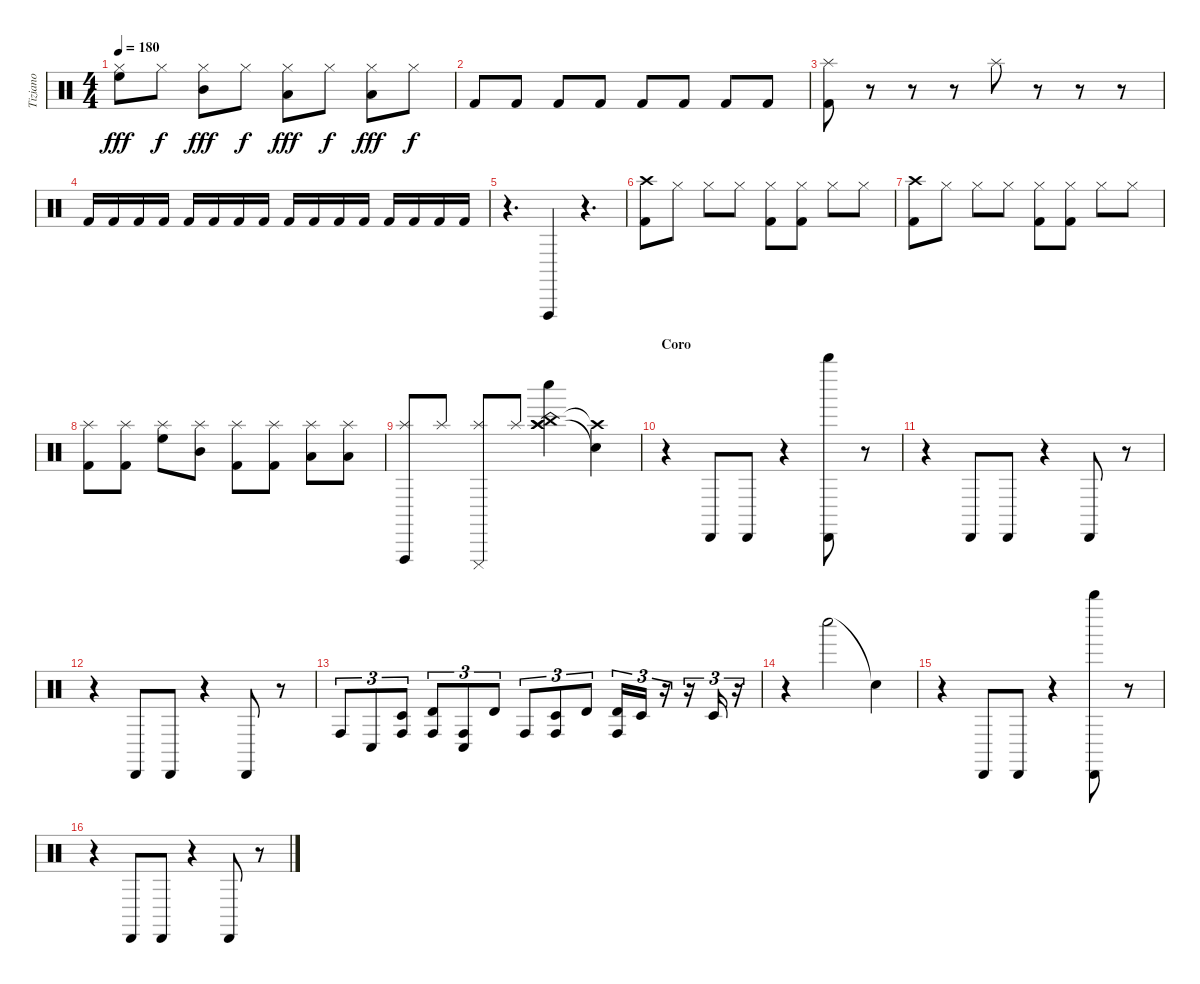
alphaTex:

\track ("Tiziano" "Tiziano") {instrument percussion}
\staff {score}
\articulation defaults
\ts (4 4)
\tempo 180
\clef neutral
\ks c
("Hi-Hat (closed)" "High Floor Tom (hit)").8{dy fff} "Hi-Hat (closed)".8{dy f} ("Hi-Hat (closed)" "Mid Tom (hit)").8{dy fff} "Hi-Hat (closed)".8{dy f} ("Hi-Hat (closed)" "Low Tom (hit)").8{dy fff} "Hi-Hat (closed)".8{dy f} ("Hi-Hat (closed)" "Low Floor Tom (hit)").8{dy fff} "Hi-Hat (closed)".8{dy f} |
"Kick (hit) 2".8 "Kick (hit) 2".8 "Kick (hit) 2".8 "Kick (hit) 2".8 "Kick (hit) 2".8 "Kick (hit) 2".8 "Kick (hit) 2".8 "Kick (hit) 2".8 |
("Splash (hit)" "Kick (hit) 2").8 r.8 r.8 r.8 "Splash (hit)".8 r.8 r.8 r.8 |
"Kick (hit) 2".16 "Kick (hit) 2".16 "Kick (hit) 2".16 "Kick (hit) 2".16 "Kick (hit) 2".16 "Kick (hit) 2".16 "Kick (hit) 2".16 "Kick (hit) 2".16 "Kick (hit) 2".16 "Kick (hit) 2".16 "Kick (hit) 2".16 "Kick (hit) 2".16 "Kick (hit) 2".16 "Kick (hit) 2".16 "Kick (hit) 2".16 "Kick (hit) 2".16 |
r.4{d} "Vibraslap (hit)".4 r.4{d} |
("Crash high (hit)" "Kick (hit) 2").8 "Hi-Hat (closed)".8 "Hi-Hat (closed)".8 "Hi-Hat (closed)".8 ("Hi-Hat (closed)" "Kick (hit) 2").8 ("Hi-Hat (closed)" "Kick (hit) 2").8 "Hi-Hat (closed)".8 "Hi-Hat (closed)".8 |
("Crash high (hit)" "Kick (hit) 2").8 "Hi-Hat (closed)".8 "Hi-Hat (closed)".8 "Hi-Hat (closed)".8 ("Hi-Hat (closed)" "Kick (hit) 2").8 ("Hi-Hat (closed)" "Kick (hit) 2").8 "Hi-Hat (closed)".8 "Hi-Hat (closed)".8 |
("Splash (hit)" "Kick (hit) 2").8 ("Splash (hit)" "Kick (hit) 2").8 ("Splash (hit)" "High Floor Tom (hit)").8 ("Splash (hit)" "Mid Tom (hit)").8 ("Splash (hit)" "Kick (hit) 2").8 ("Splash (hit)" "Kick (hit) 2").8 ("Splash (hit)" "Low Tom (hit)").8 ("Splash (hit)" "Low Floor Tom (hit)").8 |
("Splash (hit)" "Vibraslap (hit)").8 "Splash (hit)".8 ("Splash (hit)" "Cuica (mute)").8 "Splash (hit)".8 ("China (hit)" "Crash high (hit)" "Crash high (hit)" "Whistle low (hit)").4 ("Crash high (hit)"{t} "Snare (hit)"{t}).4 |
\section ("" "Coro")
r.4 "Cabasa (hit)".8 "Cabasa (hit)".8 r.4 ("Cabasa (hit)" "Whistle high (hit)").8 r.8 |
r.4 "Cabasa (hit)".8 "Cabasa (hit)".8 r.4 "Cabasa (hit)".8 r.8 |
r.4 "Cabasa (hit)".8 "Cabasa (hit)".8 r.4 "Cabasa (hit)".8 r.8 |
"Conga high (hit)".8{tu (3 2)} "Conga low (hit)".8{tu (3 2)} ("Conga high (hit)" "Timbale low (hit)").8{tu (3 2)} ("Conga high (hit)" "Timbale high (hit)").8{tu (3 2)} ("Conga high (hit)" "Conga low (hit)").8{tu (3 2)} "Timbale high (hit)".8{tu (3 2)} "Conga high (hit)".8{tu (3 2)} ("Timbale low (hit)" "Conga high (hit)").8{tu (3 2)} "Timbale high (hit)".8{tu (3 2)} ("Conga high (hit)" "Timbale high (hit)").16{tu (3 2)} "Timbale low (hit)".16{tu (3 2)} r.16{tu (3 2)} r.16{tu (3 2)} "Timbale low (hit)".16{tu (3 2)} r.16{tu (3 2)} |
r.4 "Whistle low (hit)".2 "Snare (hit)"{t}.4 |
r.4 "Cabasa (hit)".8 "Cabasa (hit)".8 r.4 ("Cabasa (hit)" "Whistle high (hit)").8 r.8 |
r.4 "Cabasa (hit)".8 "Cabasa (hit)".8 r.4 "Cabasa (hit)".8 r.8
